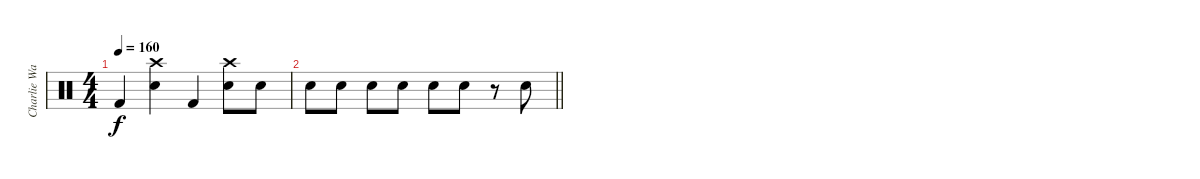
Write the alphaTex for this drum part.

\track ("Charlie Watts" "Charlie Wa") {instrument percussion}
\staff {score}
\articulation defaults
\ts (4 4)
\tempo 160
\clef neutral
\ks c "Kick (hit) 2".4{dy f}
("Snare (hit) 2" "Crash high (hit)").4 "Kick (hit) 2".4 ("Snare (hit) 2" "Crash high (hit)").8 "Snare (hit) 2".8 |
\barLineRight lightlight "Snare (hit) 2".8 "Snare (hit) 2".8 "Snare (hit) 2".8 "Snare (hit) 2".8 "Snare (hit) 2".8 "Snare (hit) 2".8
r.8 "Snare (hit) 2".8
